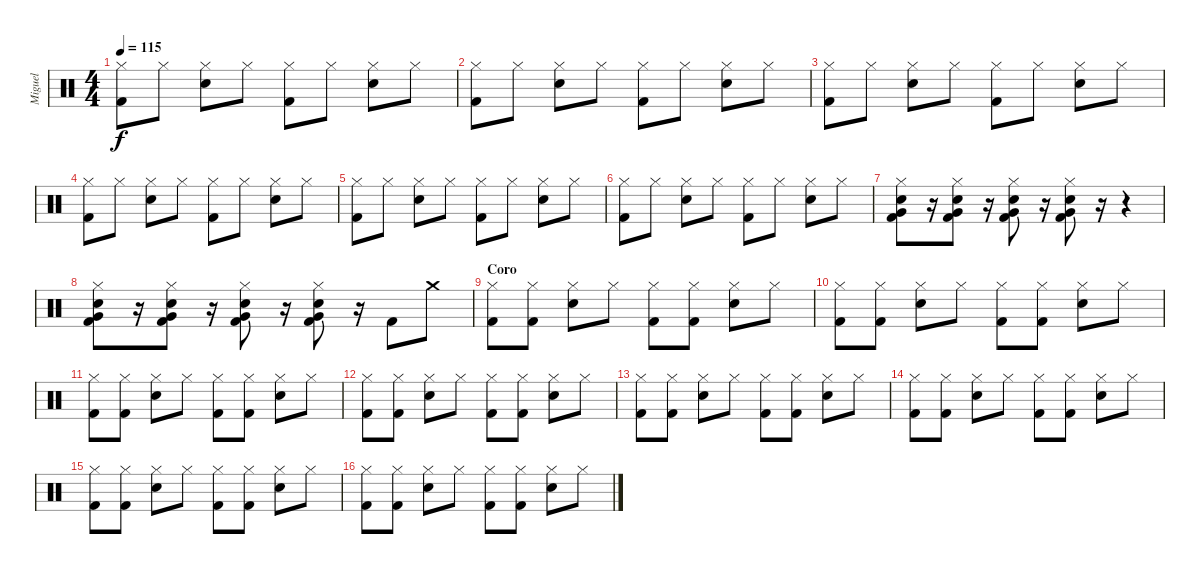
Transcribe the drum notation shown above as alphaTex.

\track ("Miguel" "Miguel") {instrument percussion}
\staff {score}
\articulation defaults
\ts (4 4)
\tempo 115
\clef neutral
\ks c
("Hi-Hat (closed)" "Kick (hit) 2").8{dy f} "Hi-Hat (closed)".8 ("Hi-Hat (closed)" "Snare (hit) 2").8 "Hi-Hat (closed)".8 ("Hi-Hat (closed)" "Kick (hit) 2").8 "Hi-Hat (closed)".8 ("Hi-Hat (closed)" "Snare (hit) 2").8 "Hi-Hat (closed)".8 |
("Hi-Hat (closed)" "Kick (hit) 2").8 "Hi-Hat (closed)".8 ("Hi-Hat (closed)" "Snare (hit) 2").8 "Hi-Hat (closed)".8 ("Hi-Hat (closed)" "Kick (hit) 2").8 "Hi-Hat (closed)".8 ("Hi-Hat (closed)" "Snare (hit) 2").8 "Hi-Hat (closed)".8 |
("Hi-Hat (closed)" "Kick (hit) 2").8 "Hi-Hat (closed)".8 ("Hi-Hat (closed)" "Snare (hit) 2").8 "Hi-Hat (closed)".8 ("Hi-Hat (closed)" "Kick (hit) 2").8 "Hi-Hat (closed)".8 ("Hi-Hat (closed)" "Snare (hit) 2").8 "Hi-Hat (closed)".8 |
("Hi-Hat (closed)" "Kick (hit) 2").8 "Hi-Hat (closed)".8 ("Hi-Hat (closed)" "Snare (hit) 2").8 "Hi-Hat (closed)".8 ("Hi-Hat (closed)" "Kick (hit) 2").8 "Hi-Hat (closed)".8 ("Hi-Hat (closed)" "Snare (hit) 2").8 "Hi-Hat (closed)".8 |
("Hi-Hat (closed)" "Kick (hit) 2").8 "Hi-Hat (closed)".8 ("Hi-Hat (closed)" "Snare (hit) 2").8 "Hi-Hat (closed)".8 ("Hi-Hat (closed)" "Kick (hit) 2").8 "Hi-Hat (closed)".8 ("Hi-Hat (closed)" "Snare (hit) 2").8 "Hi-Hat (closed)".8 |
("Hi-Hat (closed)" "Kick (hit) 2").8 "Hi-Hat (closed)".8 ("Hi-Hat (closed)" "Snare (hit) 2").8 "Hi-Hat (closed)".8 ("Hi-Hat (closed)" "Kick (hit) 2").8 "Hi-Hat (closed)".8 ("Hi-Hat (closed)" "Snare (hit) 2").8 "Hi-Hat (closed)".8 |
("Hi-Hat (closed)" "Snare (hit) 2" "Very Low Tom (hit)" "Kick (hit) 2").8 r.16 ("Hi-Hat (closed)" "Snare (hit) 2" "Very Low Tom (hit)" "Kick (hit) 2").8 r.16 ("Hi-Hat (closed)" "Snare (hit) 2" "Very Low Tom (hit)" "Kick (hit) 2").8 r.16 ("Hi-Hat (closed)" "Snare (hit) 2" "Very Low Tom (hit)" "Kick (hit) 2").8 r.16 r.4 |
("Hi-Hat (closed)" "Snare (hit) 2" "Very Low Tom (hit)" "Kick (hit) 2").8 r.16 ("Hi-Hat (closed)" "Snare (hit) 2" "Very Low Tom (hit)" "Kick (hit) 2").8 r.16 ("Hi-Hat (closed)" "Snare (hit) 2" "Very Low Tom (hit)" "Kick (hit) 2").8 r.16 ("Hi-Hat (closed)" "Snare (hit) 2" "Very Low Tom (hit)" "Kick (hit) 2").8 r.16 "Kick (hit) 2".8 "Crash medium (hit)".8 |
\section ("" "Coro")
("Hi-Hat (closed)" "Kick (hit) 2").8 ("Hi-Hat (closed)" "Kick (hit) 2").8 ("Hi-Hat (closed)" "Snare (hit) 2").8 "Hi-Hat (closed)".8 ("Hi-Hat (closed)" "Kick (hit) 2").8 ("Hi-Hat (closed)" "Kick (hit) 2").8 ("Hi-Hat (closed)" "Snare (hit) 2").8 "Hi-Hat (closed)".8 |
("Hi-Hat (closed)" "Kick (hit) 2").8 ("Hi-Hat (closed)" "Kick (hit) 2").8 ("Hi-Hat (closed)" "Snare (hit) 2").8 "Hi-Hat (closed)".8 ("Hi-Hat (closed)" "Kick (hit) 2").8 ("Hi-Hat (closed)" "Kick (hit) 2").8 ("Hi-Hat (closed)" "Snare (hit) 2").8 "Hi-Hat (closed)".8 |
("Hi-Hat (closed)" "Kick (hit) 2").8 ("Hi-Hat (closed)" "Kick (hit) 2").8 ("Hi-Hat (closed)" "Snare (hit) 2").8 "Hi-Hat (closed)".8 ("Hi-Hat (closed)" "Kick (hit) 2").8 ("Hi-Hat (closed)" "Kick (hit) 2").8 ("Hi-Hat (closed)" "Snare (hit) 2").8 "Hi-Hat (closed)".8 |
("Hi-Hat (closed)" "Kick (hit) 2").8 ("Hi-Hat (closed)" "Kick (hit) 2").8 ("Hi-Hat (closed)" "Snare (hit) 2").8 "Hi-Hat (closed)".8 ("Hi-Hat (closed)" "Kick (hit) 2").8 ("Hi-Hat (closed)" "Kick (hit) 2").8 ("Hi-Hat (closed)" "Snare (hit) 2").8 "Hi-Hat (closed)".8 |
("Hi-Hat (closed)" "Kick (hit) 2").8 ("Hi-Hat (closed)" "Kick (hit) 2").8 ("Hi-Hat (closed)" "Snare (hit) 2").8 "Hi-Hat (closed)".8 ("Hi-Hat (closed)" "Kick (hit) 2").8 ("Hi-Hat (closed)" "Kick (hit) 2").8 ("Hi-Hat (closed)" "Snare (hit) 2").8 "Hi-Hat (closed)".8 |
("Hi-Hat (closed)" "Kick (hit) 2").8 ("Hi-Hat (closed)" "Kick (hit) 2").8 ("Hi-Hat (closed)" "Snare (hit) 2").8 "Hi-Hat (closed)".8 ("Hi-Hat (closed)" "Kick (hit) 2").8 ("Hi-Hat (closed)" "Kick (hit) 2").8 ("Hi-Hat (closed)" "Snare (hit) 2").8 "Hi-Hat (closed)".8 |
("Hi-Hat (closed)" "Kick (hit) 2").8 ("Hi-Hat (closed)" "Kick (hit) 2").8 ("Hi-Hat (closed)" "Snare (hit) 2").8 "Hi-Hat (closed)".8 ("Hi-Hat (closed)" "Kick (hit) 2").8 ("Hi-Hat (closed)" "Kick (hit) 2").8 ("Hi-Hat (closed)" "Snare (hit) 2").8 "Hi-Hat (closed)".8 |
("Hi-Hat (closed)" "Kick (hit) 2").8 ("Hi-Hat (closed)" "Kick (hit) 2").8 ("Hi-Hat (closed)" "Snare (hit) 2").8 "Hi-Hat (closed)".8 ("Hi-Hat (closed)" "Kick (hit) 2").8 ("Hi-Hat (closed)" "Kick (hit) 2").8 ("Hi-Hat (closed)" "Snare (hit) 2").8 "Hi-Hat (closed)".8
